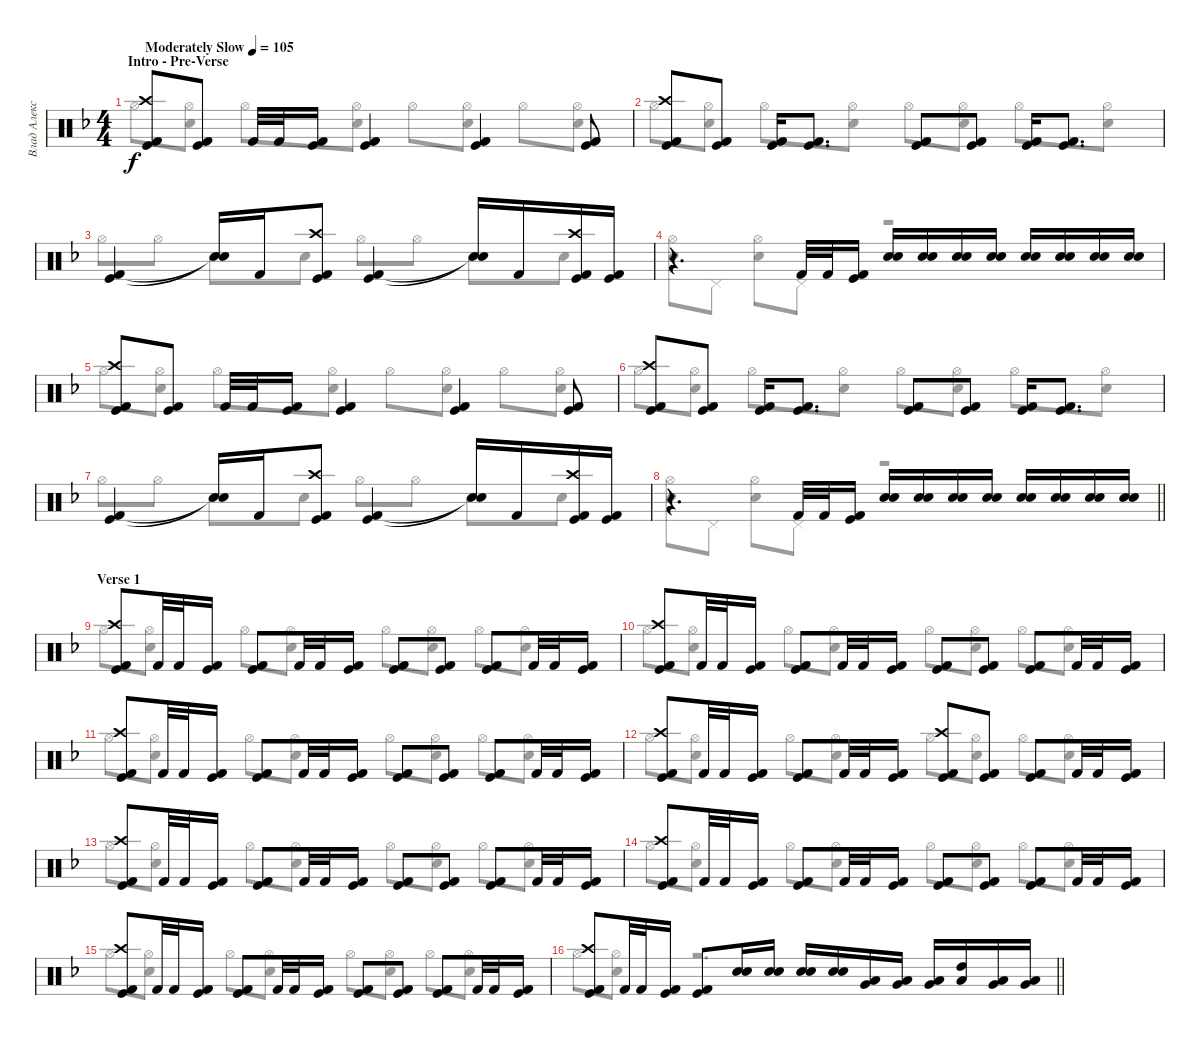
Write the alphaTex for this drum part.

\track ("Влад Алексеенко" "Влад Алекс") {instrument percussion}
\staff {score}
\articulation defaults
\voice
\ts (4 4)
\section ("" "Intro - Pre-Verse")
\tempo (105 "Moderately Slow")
\clef neutral
\ks f
("Kick (hit) 2" "Kick (hit)" "Crash high (hit)").8{dy f} ("Kick (hit) 2" "Kick (hit)").8 "Kick (hit) 2".32 "Kick (hit) 2".32 ("Kick (hit) 2" "Kick (hit)").16 ("Kick (hit) 2" "Kick (hit)").4 ("Kick (hit) 2" "Kick (hit)").4 ("Kick (hit) 2" "Kick (hit)").8 |
("Kick (hit) 2" "Kick (hit)" "Crash high (hit)").8 ("Kick (hit) 2" "Kick (hit)").8 ("Kick (hit) 2" "Kick (hit)").16 ("Kick (hit) 2" "Kick (hit)").8{d} ("Kick (hit) 2" "Kick (hit)").8 ("Kick (hit) 2" "Kick (hit)").8 ("Kick (hit) 2" "Kick (hit)").16 ("Kick (hit) 2" "Kick (hit)").8{d} |
("Kick (hit) 2" "Kick (hit)").4 ("Snare (hit)"{t} "Snare (hit)"{t}).16 "Kick (hit) 2".16 ("Kick (hit) 2" "Kick (hit)" "Crash high (hit)").8 ("Kick (hit) 2" "Kick (hit)").4 ("Snare (hit)"{t} "Snare (hit)"{t}).16 "Kick (hit) 2".16 ("Kick (hit) 2" "Kick (hit)" "Crash high (hit)").16 ("Kick (hit) 2" "Kick (hit)").16 |
r.4{d} "Kick (hit) 2".32 "Kick (hit) 2".32 ("Kick (hit) 2" "Kick (hit)").16 ("Snare (hit) 2" "Snare (hit) 2").16 ("Snare (hit) 2" "Snare (hit) 2").16 ("Snare (hit) 2" "Snare (hit) 2").16 ("Snare (hit) 2" "Snare (hit) 2").16 ("Snare (hit) 2" "Snare (hit) 2").16 ("Snare (hit) 2" "Snare (hit) 2").16 ("Snare (hit) 2" "Snare (hit) 2").16 ("Snare (hit) 2" "Snare (hit) 2").16 |
("Kick (hit) 2" "Kick (hit)" "Crash high (hit)").8 ("Kick (hit) 2" "Kick (hit)").8 "Kick (hit) 2".32 "Kick (hit) 2".32 ("Kick (hit) 2" "Kick (hit)").16 ("Kick (hit) 2" "Kick (hit)").4 ("Kick (hit) 2" "Kick (hit)").4 ("Kick (hit) 2" "Kick (hit)").8 |
("Kick (hit) 2" "Kick (hit)" "Crash high (hit)").8 ("Kick (hit) 2" "Kick (hit)").8 ("Kick (hit) 2" "Kick (hit)").16 ("Kick (hit) 2" "Kick (hit)").8{d} ("Kick (hit) 2" "Kick (hit)").8 ("Kick (hit) 2" "Kick (hit)").8 ("Kick (hit) 2" "Kick (hit)").16 ("Kick (hit) 2" "Kick (hit)").8{d} |
("Kick (hit) 2" "Kick (hit)").4 ("Snare (hit)"{t} "Snare (hit)"{t}).16 "Kick (hit) 2".16 ("Kick (hit) 2" "Kick (hit)" "Crash high (hit)").8 ("Kick (hit) 2" "Kick (hit)").4 ("Snare (hit)"{t} "Snare (hit)"{t}).16 "Kick (hit) 2".16 ("Kick (hit) 2" "Kick (hit)" "Crash high (hit)").16 ("Kick (hit) 2" "Kick (hit)").16 |
\barLineRight lightlight
r.4{d} "Kick (hit) 2".32 "Kick (hit) 2".32 ("Kick (hit) 2" "Kick (hit)").16 ("Snare (hit) 2" "Snare (hit) 2").16 ("Snare (hit) 2" "Snare (hit) 2").16 ("Snare (hit) 2" "Snare (hit) 2").16 ("Snare (hit) 2" "Snare (hit) 2").16 ("Snare (hit) 2" "Snare (hit) 2").16 ("Snare (hit) 2" "Snare (hit) 2").16 ("Snare (hit) 2" "Snare (hit) 2").16 ("Snare (hit) 2" "Snare (hit) 2").16 |
\section ("" "Verse 1")
("Kick (hit) 2" "Kick (hit)" "Crash high (hit)").8 "Kick (hit) 2".32 "Kick (hit) 2".32 ("Kick (hit) 2" "Kick (hit)").16 ("Kick (hit) 2" "Kick (hit)").8 "Kick (hit) 2".32 "Kick (hit) 2".32 ("Kick (hit) 2" "Kick (hit)").16 ("Kick (hit) 2" "Kick (hit)").8 ("Kick (hit) 2" "Kick (hit)").8 ("Kick (hit) 2" "Kick (hit)").8 "Kick (hit) 2".32 "Kick (hit) 2".32 ("Kick (hit) 2" "Kick (hit)").16 |
("Kick (hit) 2" "Kick (hit)" "Crash high (hit)").8 "Kick (hit) 2".32 "Kick (hit) 2".32 ("Kick (hit) 2" "Kick (hit)").16 ("Kick (hit) 2" "Kick (hit)").8 "Kick (hit) 2".32 "Kick (hit) 2".32 ("Kick (hit) 2" "Kick (hit)").16 ("Kick (hit) 2" "Kick (hit)").8 ("Kick (hit) 2" "Kick (hit)").8 ("Kick (hit) 2" "Kick (hit)").8 "Kick (hit) 2".32 "Kick (hit) 2".32 ("Kick (hit) 2" "Kick (hit)").16 |
("Kick (hit) 2" "Kick (hit)" "Crash high (hit)").8 "Kick (hit) 2".32 "Kick (hit) 2".32 ("Kick (hit) 2" "Kick (hit)").16 ("Kick (hit) 2" "Kick (hit)").8 "Kick (hit) 2".32 "Kick (hit) 2".32 ("Kick (hit) 2" "Kick (hit)").16 ("Kick (hit) 2" "Kick (hit)").8 ("Kick (hit) 2" "Kick (hit)").8 ("Kick (hit) 2" "Kick (hit)").8 "Kick (hit) 2".32 "Kick (hit) 2".32 ("Kick (hit) 2" "Kick (hit)").16 |
("Kick (hit) 2" "Kick (hit)" "Crash high (hit)").8 "Kick (hit) 2".32 "Kick (hit) 2".32 ("Kick (hit) 2" "Kick (hit)").16 ("Kick (hit) 2" "Kick (hit)").8 "Kick (hit) 2".32 "Kick (hit) 2".32 ("Kick (hit) 2" "Kick (hit)").16 ("Kick (hit) 2" "Kick (hit)" "Crash high (hit)").8 ("Kick (hit) 2" "Kick (hit)").8 ("Kick (hit) 2" "Kick (hit)").8 "Kick (hit) 2".32 "Kick (hit) 2".32 ("Kick (hit) 2" "Kick (hit)").16 |
("Kick (hit) 2" "Kick (hit)" "Crash high (hit)").8 "Kick (hit) 2".32 "Kick (hit) 2".32 ("Kick (hit) 2" "Kick (hit)").16 ("Kick (hit) 2" "Kick (hit)").8 "Kick (hit) 2".32 "Kick (hit) 2".32 ("Kick (hit) 2" "Kick (hit)").16 ("Kick (hit) 2" "Kick (hit)").8 ("Kick (hit) 2" "Kick (hit)").8 ("Kick (hit) 2" "Kick (hit)").8 "Kick (hit) 2".32 "Kick (hit) 2".32 ("Kick (hit) 2" "Kick (hit)").16 |
("Kick (hit) 2" "Kick (hit)" "Crash high (hit)").8 "Kick (hit) 2".32 "Kick (hit) 2".32 ("Kick (hit) 2" "Kick (hit)").16 ("Kick (hit) 2" "Kick (hit)").8 "Kick (hit) 2".32 "Kick (hit) 2".32 ("Kick (hit) 2" "Kick (hit)").16 ("Kick (hit) 2" "Kick (hit)").8 ("Kick (hit) 2" "Kick (hit)").8 ("Kick (hit) 2" "Kick (hit)").8 "Kick (hit) 2".32 "Kick (hit) 2".32 ("Kick (hit) 2" "Kick (hit)").16 |
("Kick (hit) 2" "Kick (hit)" "Crash high (hit)").8 "Kick (hit) 2".32 "Kick (hit) 2".32 ("Kick (hit) 2" "Kick (hit)").16 ("Kick (hit) 2" "Kick (hit)").8 "Kick (hit) 2".32 "Kick (hit) 2".32 ("Kick (hit) 2" "Kick (hit)").16 ("Kick (hit) 2" "Kick (hit)").8 ("Kick (hit) 2" "Kick (hit)").8 ("Kick (hit) 2" "Kick (hit)").8 "Kick (hit) 2".32 "Kick (hit) 2".32 ("Kick (hit) 2" "Kick (hit)").16 |
\barLineRight lightlight
("Kick (hit) 2" "Kick (hit)" "Crash high (hit)").8 "Kick (hit) 2".32 "Kick (hit) 2".32 ("Kick (hit) 2" "Kick (hit)").16 ("Kick (hit) 2" "Kick (hit)").8 ("Snare (hit) 2" "Snare (hit) 2").16 ("Snare (hit) 2" "Snare (hit) 2").16 ("Snare (hit) 2" "Snare (hit) 2").16 ("Snare (hit) 2" "Snare (hit) 2").16 ("Low Tom (hit)" "Very Low Tom (hit)").16 ("Very Low Tom (hit)" "Low Tom (hit)").16 ("Low Tom (hit)" "Very Low Tom (hit)").16 ("Low Tom (hit)" "High Tom (hit)").16 ("Very Low Tom (hit)" "Low Tom (hit)").16 ("Low Floor Tom (hit)" "Very Low Tom (hit)").16
\voice
\clef neutral
\ottava regular
\simile none
\ks f "Hi-Hat (open)".8{dy f}
("Hi-Hat (open)" "Snare (hit) 2").8 "Hi-Hat (open)".8 ("Hi-Hat (open)" "Snare (hit) 2").8 "Hi-Hat (open)".8 ("Hi-Hat (open)" "Snare (hit) 2").8 "Hi-Hat (open)".8 ("Hi-Hat (open)" "Snare (hit) 2").8 |
"Hi-Hat (open)".8 ("Hi-Hat (open)" "Snare (hit) 2").8 "Hi-Hat (open)".8 ("Hi-Hat (open)" "Snare (hit) 2").8 "Hi-Hat (open)".8 ("Hi-Hat (open)" "Snare (hit) 2").8 "Hi-Hat (open)".8 ("Hi-Hat (open)" "Snare (hit) 2").8 |
"Hi-Hat (open)".8 "Hi-Hat (open)".8 "Snare (hit) 2".8 "Snare (hit) 2".8 "Hi-Hat (open)".8 "Hi-Hat (open)".8 "Snare (hit) 2".8 "Snare (hit) 2".8 |
("Snare (hit) 2" "Hi-Hat (open)").8 "Pedal Hi-Hat (hit)".8 ("Snare (hit) 2" "Hi-Hat (open)").8 "Pedal Hi-Hat (hit)".8 r.2 |
"Hi-Hat (open)".8 ("Hi-Hat (open)" "Snare (hit) 2").8 "Hi-Hat (open)".8 ("Hi-Hat (open)" "Snare (hit) 2").8 "Hi-Hat (open)".8 ("Hi-Hat (open)" "Snare (hit) 2").8 "Hi-Hat (open)".8 ("Hi-Hat (open)" "Snare (hit) 2").8 |
"Hi-Hat (open)".8 ("Hi-Hat (open)" "Snare (hit) 2").8 "Hi-Hat (open)".8 ("Hi-Hat (open)" "Snare (hit) 2").8 "Hi-Hat (open)".8 ("Hi-Hat (open)" "Snare (hit) 2").8 "Hi-Hat (open)".8 ("Hi-Hat (open)" "Snare (hit) 2").8 |
"Hi-Hat (open)".8 "Hi-Hat (open)".8 "Snare (hit) 2".8 "Snare (hit) 2".8 "Hi-Hat (open)".8 "Hi-Hat (open)".8 "Snare (hit) 2".8 "Snare (hit) 2".8 |
\barLineRight lightlight
("Snare (hit) 2" "Hi-Hat (open)").8 "Pedal Hi-Hat (hit)".8 ("Snare (hit) 2" "Hi-Hat (open)").8 "Pedal Hi-Hat (hit)".8 r.2 |
"Hi-Hat (open)".8 ("Hi-Hat (open)" "Snare (hit) 2").8 "Hi-Hat (open)".8 ("Hi-Hat (open)" "Snare (hit) 2").8 "Hi-Hat (open)".8 ("Hi-Hat (open)" "Snare (hit) 2").8 "Hi-Hat (open)".8 ("Hi-Hat (open)" "Snare (hit) 2").8 |
"Hi-Hat (open)".8 ("Hi-Hat (open)" "Snare (hit) 2").8 "Hi-Hat (open)".8 ("Hi-Hat (open)" "Snare (hit) 2").8 "Hi-Hat (open)".8 ("Hi-Hat (open)" "Snare (hit) 2").8 "Hi-Hat (open)".8 ("Hi-Hat (open)" "Snare (hit) 2").8 |
"Hi-Hat (open)".8 ("Hi-Hat (open)" "Snare (hit) 2").8 "Hi-Hat (open)".8 ("Hi-Hat (open)" "Snare (hit) 2").8 "Hi-Hat (open)".8 ("Hi-Hat (open)" "Snare (hit) 2").8 "Hi-Hat (open)".8 ("Hi-Hat (open)" "Snare (hit) 2").8 |
"Hi-Hat (open)".8 ("Hi-Hat (open)" "Snare (hit) 2").8 "Hi-Hat (open)".8 ("Hi-Hat (open)" "Snare (hit) 2").8 "Hi-Hat (open)".8 ("Hi-Hat (open)" "Snare (hit) 2").8 "Hi-Hat (open)".8 ("Hi-Hat (open)" "Snare (hit) 2").8 |
"Hi-Hat (open)".8 ("Hi-Hat (open)" "Snare (hit) 2").8 "Hi-Hat (open)".8 ("Hi-Hat (open)" "Snare (hit) 2").8 "Hi-Hat (open)".8 ("Hi-Hat (open)" "Snare (hit) 2").8 "Hi-Hat (open)".8 ("Hi-Hat (open)" "Snare (hit) 2").8 |
"Hi-Hat (open)".8 ("Hi-Hat (open)" "Snare (hit) 2").8 "Hi-Hat (open)".8 ("Hi-Hat (open)" "Snare (hit) 2").8 "Hi-Hat (open)".8 ("Hi-Hat (open)" "Snare (hit) 2").8 "Hi-Hat (open)".8 ("Hi-Hat (open)" "Snare (hit) 2").8 |
"Hi-Hat (open)".8 ("Hi-Hat (open)" "Snare (hit) 2").8 "Hi-Hat (open)".8 ("Hi-Hat (open)" "Snare (hit) 2").8 "Hi-Hat (open)".8 ("Hi-Hat (open)" "Snare (hit) 2").8 "Hi-Hat (open)".8 ("Hi-Hat (open)" "Snare (hit) 2").8 |
\barLineRight lightlight "Hi-Hat (open)".8
("Hi-Hat (open)" "Snare (hit) 2").8 r.2{d}
